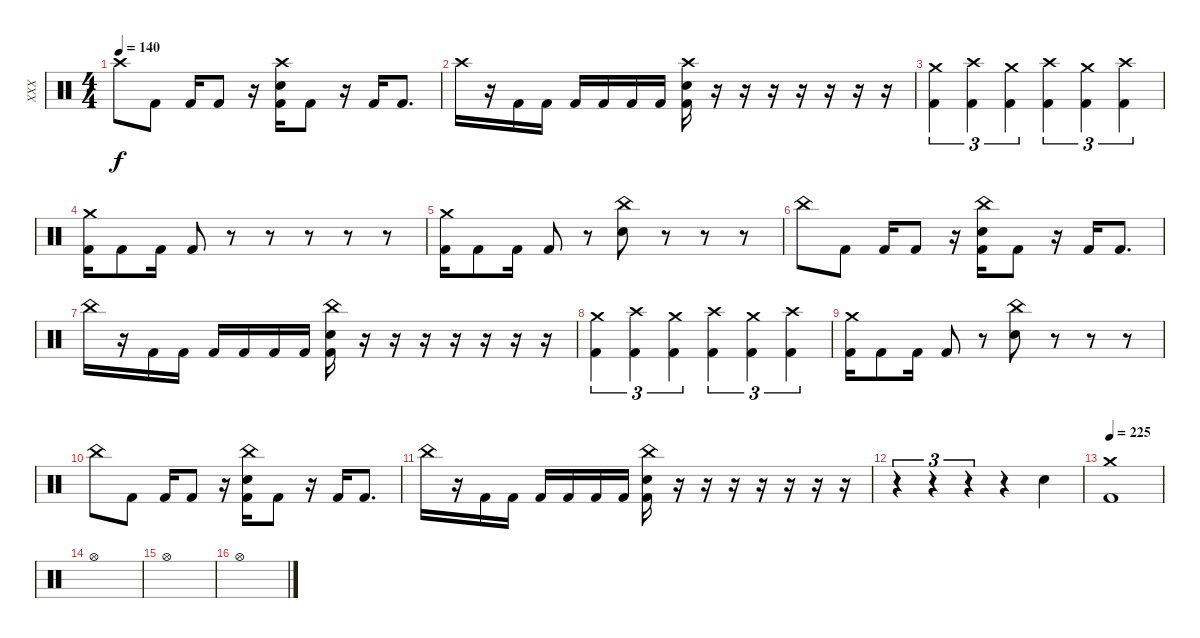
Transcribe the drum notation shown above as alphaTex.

\track ("XXX" "XXX") {instrument percussion}
\staff {score}
\articulation defaults
\ts (4 4)
\tempo 140
\clef neutral
\ks c "Crash high (hit)".8{dy f} "Kick (hit) 2".8 "Kick (hit) 2".16 "Kick (hit) 2".8
r.16 ("Crash high (hit)" "Electric Snare (hit)" "Kick (hit) 2").16 "Kick (hit) 2".8 r.16 "Kick (hit) 2".16 "Kick (hit) 2".8{d} |
"Crash high (hit)".16 r.16 "Kick (hit) 2".16 "Kick (hit) 2".16 "Kick (hit) 2".16 "Kick (hit) 2".16 "Kick (hit) 2".16 "Kick (hit) 2".16 ("Crash high (hit)" "Electric Snare (hit)" "Kick (hit) 2").16 r.16 r.16 r.16 r.16 r.16 r.16 r.16 |
("Crash medium (hit)" "Kick (hit) 2").4{tu (3 2)} ("Crash high (hit)" "Kick (hit) 2").4{tu (3 2)} ("Crash medium (hit)" "Kick (hit) 2").4{tu (3 2)} ("Crash high (hit)" "Kick (hit) 2").4{tu (3 2)} ("Crash medium (hit)" "Kick (hit) 2").4{tu (3 2)} ("Crash high (hit)" "Kick (hit) 2").4{tu (3 2)} |
("Crash medium (hit)" "Kick (hit) 2").16 "Kick (hit) 2".8 "Kick (hit) 2".16 "Kick (hit) 2".8 r.8 r.8 r.8 r.8 r.8 |
("Crash medium (hit)" "Kick (hit) 2").16 "Kick (hit) 2".8 "Kick (hit) 2".16 "Kick (hit) 2".8 r.8 ("China (hit)" "Electric Snare (hit)").8 r.8 r.8 r.8 |
"China (hit)".8 "Kick (hit) 2".8 "Kick (hit) 2".16 "Kick (hit) 2".8 r.16 ("China (hit)" "Electric Snare (hit)" "Kick (hit) 2").16 "Kick (hit) 2".8 r.16 "Kick (hit) 2".16 "Kick (hit) 2".8{d} |
"China (hit)".16 r.16 "Kick (hit) 2".16 "Kick (hit) 2".16 "Kick (hit) 2".16 "Kick (hit) 2".16 "Kick (hit) 2".16 "Kick (hit) 2".16 ("China (hit)" "Electric Snare (hit)" "Kick (hit) 2").16 r.16 r.16 r.16 r.16 r.16 r.16 r.16 |
("Crash medium (hit)" "Kick (hit) 2").4{tu (3 2)} ("Crash high (hit)" "Kick (hit) 2").4{tu (3 2)} ("Crash medium (hit)" "Kick (hit) 2").4{tu (3 2)} ("Crash high (hit)" "Kick (hit) 2").4{tu (3 2)} ("Crash medium (hit)" "Kick (hit) 2").4{tu (3 2)} ("Crash high (hit)" "Kick (hit) 2").4{tu (3 2)} |
("Crash medium (hit)" "Kick (hit) 2").16 "Kick (hit) 2".8 "Kick (hit) 2".16 "Kick (hit) 2".8 r.8 ("China (hit)" "Electric Snare (hit)").8 r.8 r.8 r.8 |
"China (hit)".8 "Kick (hit) 2".8 "Kick (hit) 2".16 "Kick (hit) 2".8 r.16 ("China (hit)" "Electric Snare (hit)" "Kick (hit) 2").16 "Kick (hit) 2".8 r.16 "Kick (hit) 2".16 "Kick (hit) 2".8{d} |
"China (hit)".16 r.16 "Kick (hit) 2".16 "Kick (hit) 2".16 "Kick (hit) 2".16 "Kick (hit) 2".16 "Kick (hit) 2".16 "Kick (hit) 2".16 ("China (hit)" "Electric Snare (hit)" "Kick (hit) 2").16 r.16 r.16 r.16 r.16 r.16 r.16 r.16 |
r.4{tu (3 2)} r.4{tu (3 2)} r.4{tu (3 2)} r.4 "Electric Snare (hit)".4 |
\tempo 225
("Crash medium (hit)" "Kick (hit) 2").1 |
"Hi-Hat (open)".1 |
"Hi-Hat (open)".1 |
"Hi-Hat (open)".1
